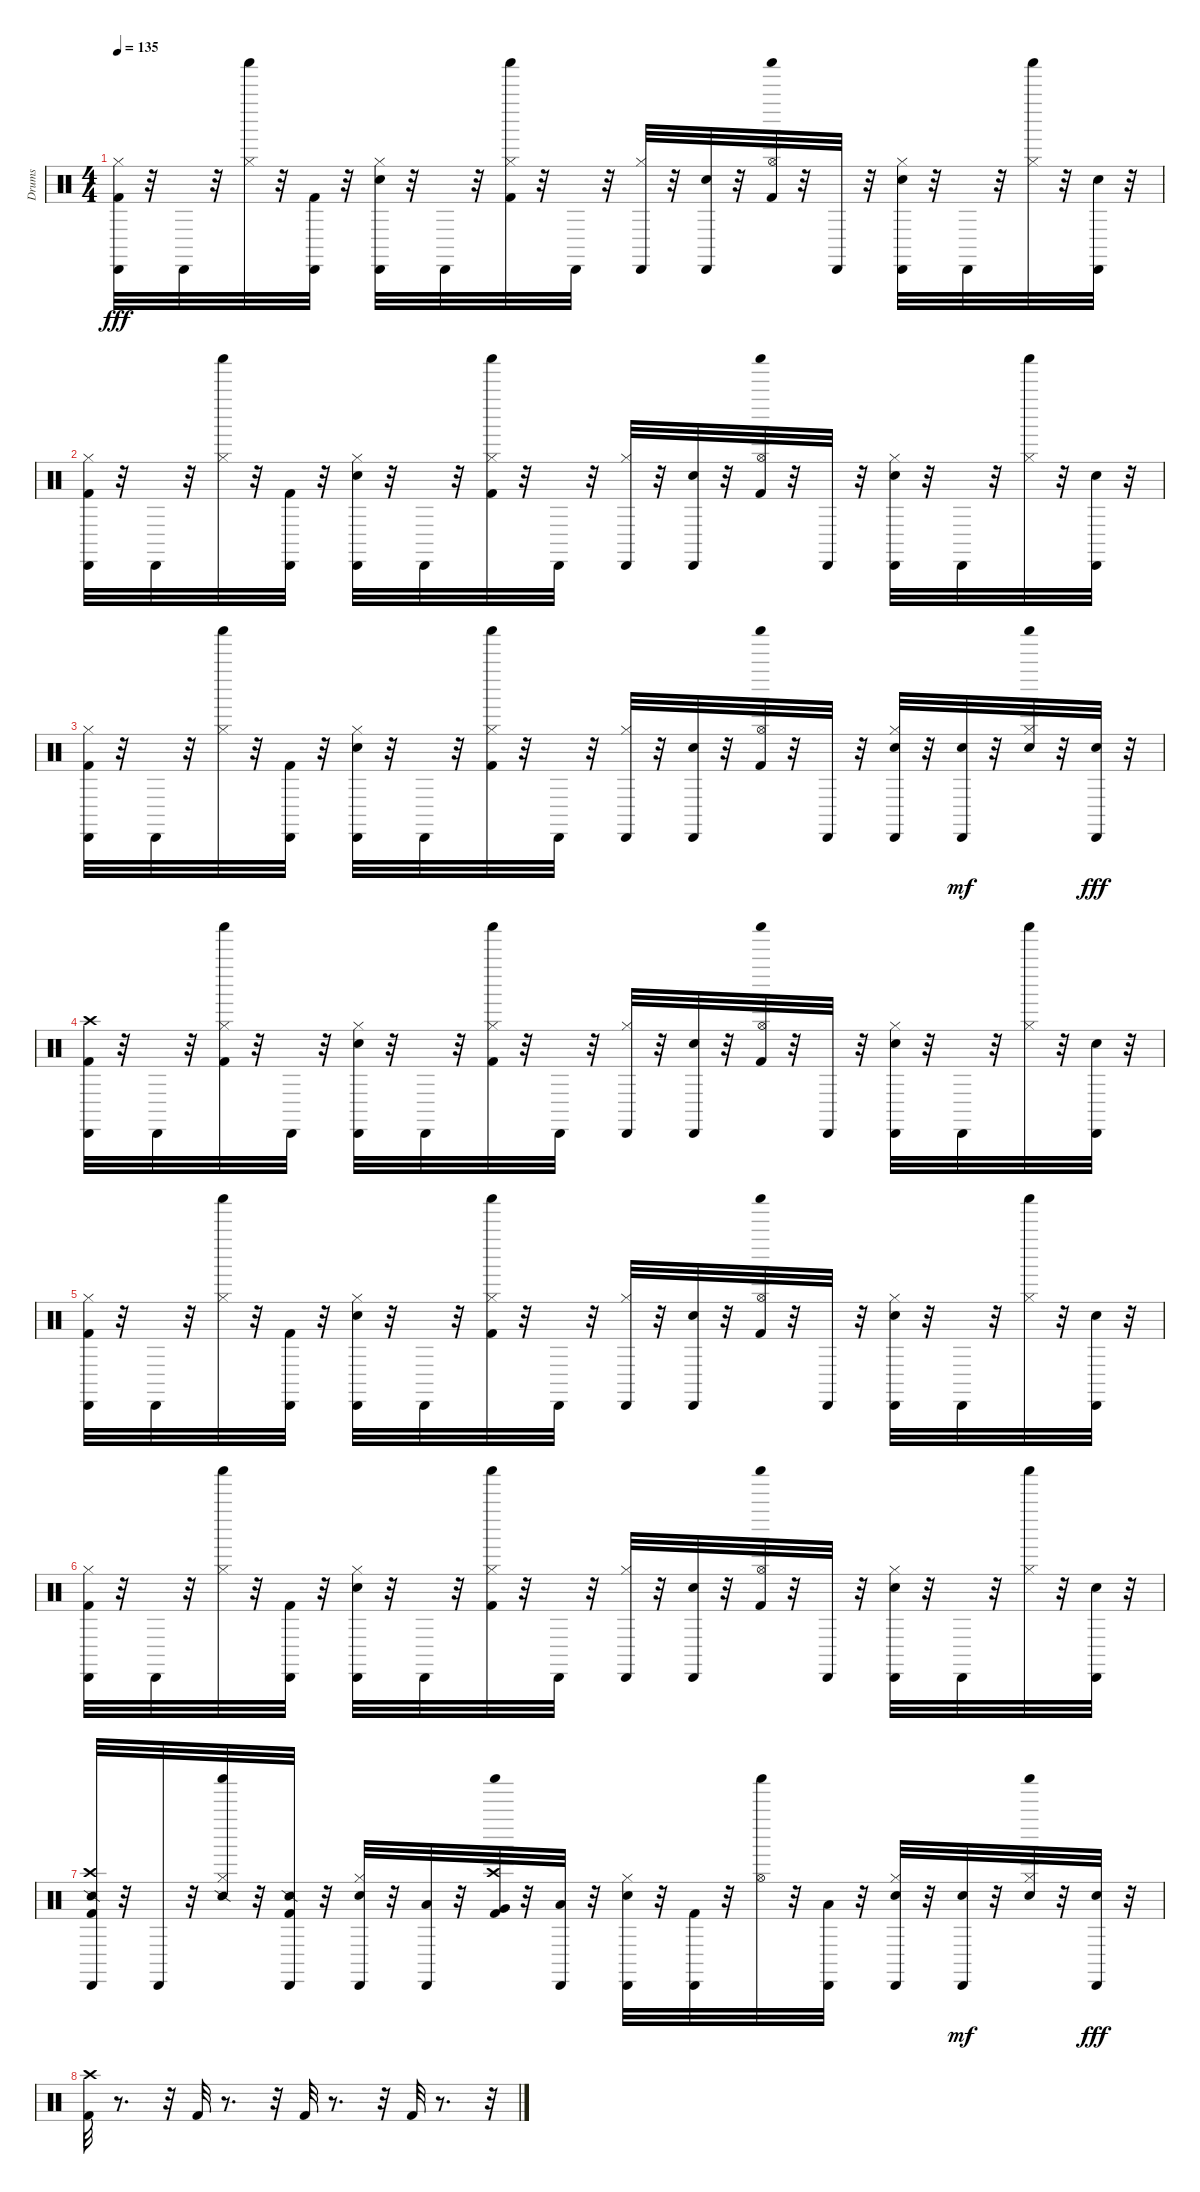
\track ("Drums" "Drums") {instrument percussion}
\staff {score}
\articulation defaults
\ts (4 4)
\tempo 135
\clef neutral
\ks c
("Hi-Hat (closed)" "Kick (hit) 2" "Cabasa (hit)").32{dy fff} r.32 "Cabasa (hit)".32 r.32 ("Shaker (hit)" "Hi-Hat (closed)").32 r.32 ("Kick (hit) 2" "Cabasa (hit)").32 r.32 ("Snare (hit) 2" "Hi-Hat (closed)" "Cabasa (hit)").32 r.32 "Cabasa (hit)".32 r.32 ("Kick (hit) 2" "Shaker (hit)" "Hi-Hat (closed)").32 r.32 "Cabasa (hit)".32 r.32 ("Hi-Hat (closed)" "Cabasa (hit)").32 r.32 ("Snare (hit) 2" "Cabasa (hit)").32 r.32 ("Kick (hit) 2" "Shaker (hit)" "Hi-Hat (open)").32 r.32 "Cabasa (hit)".32 r.32 ("Snare (hit) 2" "Hi-Hat (closed)" "Cabasa (hit)").32 r.32 "Cabasa (hit)".32 r.32 ("Shaker (hit)" "Hi-Hat (closed)").32 r.32 ("Snare (hit) 2" "Cabasa (hit)").32 r.32 |
("Hi-Hat (closed)" "Kick (hit) 2" "Cabasa (hit)").32 r.32 "Cabasa (hit)".32 r.32 ("Shaker (hit)" "Hi-Hat (closed)").32 r.32 ("Kick (hit) 2" "Cabasa (hit)").32 r.32 ("Snare (hit) 2" "Hi-Hat (closed)" "Cabasa (hit)").32 r.32 "Cabasa (hit)".32 r.32 ("Kick (hit) 2" "Shaker (hit)" "Hi-Hat (closed)").32 r.32 "Cabasa (hit)".32 r.32 ("Hi-Hat (closed)" "Cabasa (hit)").32 r.32 ("Snare (hit) 2" "Cabasa (hit)").32 r.32 ("Kick (hit) 2" "Shaker (hit)" "Hi-Hat (open)").32 r.32 "Cabasa (hit)".32 r.32 ("Snare (hit) 2" "Hi-Hat (closed)" "Cabasa (hit)").32 r.32 "Cabasa (hit)".32 r.32 ("Shaker (hit)" "Hi-Hat (closed)").32 r.32 ("Snare (hit) 2" "Cabasa (hit)").32 r.32 |
("Hi-Hat (closed)" "Kick (hit) 2" "Cabasa (hit)").32 r.32 "Cabasa (hit)".32 r.32 ("Shaker (hit)" "Hi-Hat (closed)").32 r.32 ("Kick (hit) 2" "Cabasa (hit)").32 r.32 ("Snare (hit) 2" "Hi-Hat (closed)" "Cabasa (hit)").32 r.32 "Cabasa (hit)".32 r.32 ("Kick (hit) 2" "Shaker (hit)" "Hi-Hat (closed)").32 r.32 "Cabasa (hit)".32 r.32 ("Hi-Hat (closed)" "Cabasa (hit)").32 r.32 ("Snare (hit) 2" "Cabasa (hit)").32 r.32 ("Kick (hit) 2" "Shaker (hit)" "Hi-Hat (open)").32 r.32 "Cabasa (hit)".32 r.32 ("Snare (hit) 2" "Hi-Hat (closed)" "Cabasa (hit)").32 r.32 ("Cabasa (hit)" "Snare (hit) 2").32{dy mf} r.32 ("Shaker (hit)" "Hi-Hat (closed)" "Snare (hit) 2").32 r.32 ("Snare (hit) 2" "Cabasa (hit)").32{dy fff} r.32 |
("Crash high (hit)" "Kick (hit) 2" "Cabasa (hit)").32 r.32 "Cabasa (hit)".32 r.32 ("Shaker (hit)" "Hi-Hat (closed)" "Kick (hit) 2").32 r.32 "Cabasa (hit)".32 r.32 ("Snare (hit) 2" "Hi-Hat (closed)" "Cabasa (hit)").32 r.32 "Cabasa (hit)".32 r.32 ("Kick (hit) 2" "Shaker (hit)" "Hi-Hat (closed)").32 r.32 "Cabasa (hit)".32 r.32 ("Hi-Hat (closed)" "Cabasa (hit)").32 r.32 ("Snare (hit) 2" "Cabasa (hit)").32 r.32 ("Kick (hit) 2" "Shaker (hit)" "Hi-Hat (open)").32 r.32 "Cabasa (hit)".32 r.32 ("Snare (hit) 2" "Hi-Hat (closed)" "Cabasa (hit)").32 r.32 "Cabasa (hit)".32 r.32 ("Shaker (hit)" "Hi-Hat (closed)").32 r.32 ("Snare (hit) 2" "Cabasa (hit)").32 r.32 |
("Hi-Hat (closed)" "Kick (hit) 2" "Cabasa (hit)").32 r.32 "Cabasa (hit)".32 r.32 ("Shaker (hit)" "Hi-Hat (closed)").32 r.32 ("Kick (hit) 2" "Cabasa (hit)").32 r.32 ("Snare (hit) 2" "Hi-Hat (closed)" "Cabasa (hit)").32 r.32 "Cabasa (hit)".32 r.32 ("Kick (hit) 2" "Shaker (hit)" "Hi-Hat (closed)").32 r.32 "Cabasa (hit)".32 r.32 ("Hi-Hat (closed)" "Cabasa (hit)").32 r.32 ("Snare (hit) 2" "Cabasa (hit)").32 r.32 ("Kick (hit) 2" "Shaker (hit)" "Hi-Hat (open)").32 r.32 "Cabasa (hit)".32 r.32 ("Snare (hit) 2" "Hi-Hat (closed)" "Cabasa (hit)").32 r.32 "Cabasa (hit)".32 r.32 ("Shaker (hit)" "Hi-Hat (closed)").32 r.32 ("Snare (hit) 2" "Cabasa (hit)").32 r.32 |
("Hi-Hat (closed)" "Kick (hit) 2" "Cabasa (hit)").32 r.32 "Cabasa (hit)".32 r.32 ("Shaker (hit)" "Hi-Hat (closed)").32 r.32 ("Kick (hit) 2" "Cabasa (hit)").32 r.32 ("Snare (hit) 2" "Hi-Hat (closed)" "Cabasa (hit)").32 r.32 "Cabasa (hit)".32 r.32 ("Kick (hit) 2" "Shaker (hit)" "Hi-Hat (closed)").32 r.32 "Cabasa (hit)".32 r.32 ("Hi-Hat (closed)" "Cabasa (hit)").32 r.32 ("Snare (hit) 2" "Cabasa (hit)").32 r.32 ("Kick (hit) 2" "Shaker (hit)" "Hi-Hat (open)").32 r.32 "Cabasa (hit)".32 r.32 ("Snare (hit) 2" "Hi-Hat (closed)" "Cabasa (hit)").32 r.32 "Cabasa (hit)".32 r.32 ("Shaker (hit)" "Hi-Hat (closed)").32 r.32 ("Snare (hit) 2" "Cabasa (hit)").32 r.32 |
("Crash high (hit)" "Kick (hit) 2" "Cabasa (hit)" "Snare (side stick) 2").32 r.32 "Cabasa (hit)".32 r.32 ("Shaker (hit)" "Hi-Hat (closed)" "Snare (side stick) 2").32 r.32 ("Kick (hit) 2" "Cabasa (hit)" "Snare (side stick) 2").32 r.32 ("Snare (hit) 2" "Hi-Hat (closed)" "Cabasa (hit)").32 r.32 ("Cabasa (hit)" "Low Tom (hit)").32 r.32 ("Kick (hit) 2" "Shaker (hit)" "Crash high (hit)" "Very Low Tom (hit)").32 r.32 ("Cabasa (hit)" "Low Floor Tom (hit)").32 r.32 ("Hi-Hat (closed)" "Cabasa (hit)" "Snare (hit) 2").32 r.32 ("Cabasa (hit)" "Kick (hit) 2").32 r.32 ("Shaker (hit)" "Hi-Hat (open)").32 r.32 ("Cabasa (hit)" "Low Floor Tom (hit)").32 r.32 ("Snare (hit) 2" "Hi-Hat (closed)" "Cabasa (hit)").32 r.32 ("Cabasa (hit)" "Snare (hit) 2").32{dy mf} r.32 ("Shaker (hit)" "Hi-Hat (closed)" "Snare (hit) 2").32 r.32 ("Snare (hit) 2" "Cabasa (hit)").32{dy fff} r.32 |
("Kick (hit) 2" "Crash high (hit)").32 r.8{d} r.32 "Kick (hit) 2".32 r.8{d} r.32 "Kick (hit) 2".32 r.8{d} r.32 "Kick (hit) 2".32 r.8{d} r.32
